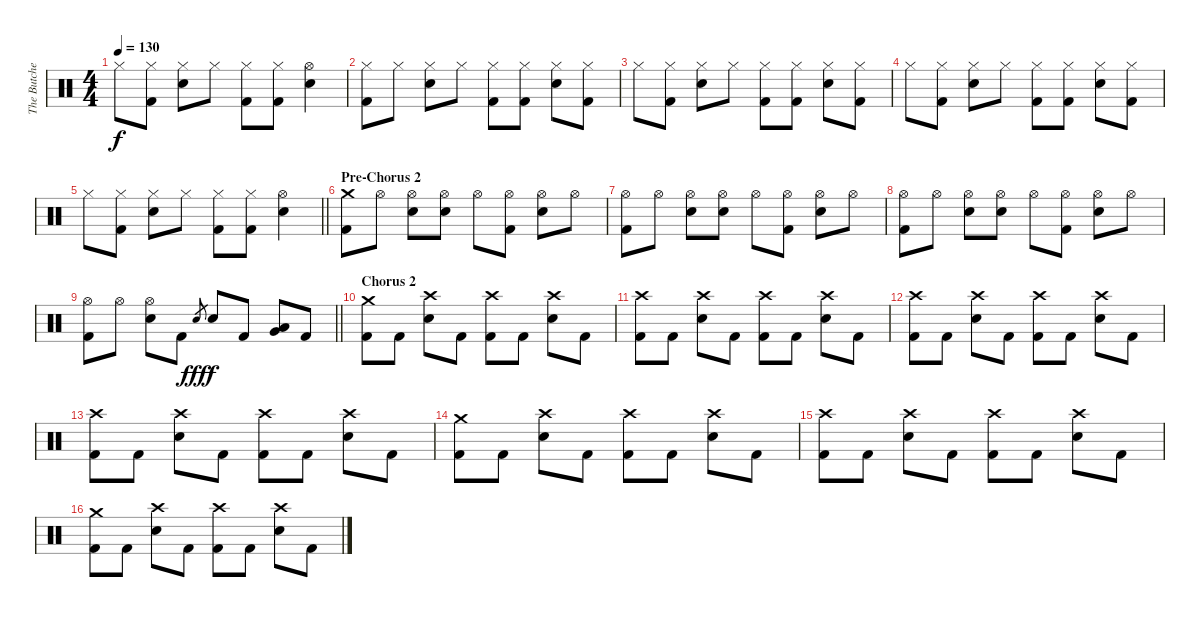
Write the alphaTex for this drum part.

\track ("The Butcher (Drums)" "The Butche") {instrument percussion}
\staff {score}
\articulation defaults
\ts (4 4)
\tempo 130
\clef neutral
\ks c "Hi-Hat (closed)".8{dy f}
("Hi-Hat (closed)" "Kick (hit) 2").8 ("Hi-Hat (closed)" "Electric Snare (hit)").8 "Hi-Hat (closed)".8 ("Hi-Hat (closed)" "Kick (hit) 2").8 ("Hi-Hat (closed)" "Kick (hit) 2").8 ("Hi-Hat (open)" "Electric Snare (hit)").4 |
("Hi-Hat (closed)" "Kick (hit) 2").8 "Hi-Hat (closed)".8 ("Hi-Hat (closed)" "Electric Snare (hit)").8 "Hi-Hat (closed)".8 ("Hi-Hat (closed)" "Kick (hit) 2").8 ("Hi-Hat (closed)" "Kick (hit) 2").8 ("Hi-Hat (closed)" "Electric Snare (hit)").8 ("Hi-Hat (closed)" "Kick (hit) 2").8 |
"Hi-Hat (closed)".8 ("Hi-Hat (closed)" "Kick (hit) 2").8 ("Hi-Hat (closed)" "Electric Snare (hit)").8 "Hi-Hat (closed)".8 ("Hi-Hat (closed)" "Kick (hit) 2").8 ("Hi-Hat (closed)" "Kick (hit) 2").8 ("Hi-Hat (closed)" "Electric Snare (hit)").8 ("Hi-Hat (closed)" "Kick (hit) 2").8 |
"Hi-Hat (closed)".8 ("Hi-Hat (closed)" "Kick (hit) 2").8 ("Hi-Hat (closed)" "Electric Snare (hit)").8 "Hi-Hat (closed)".8 ("Hi-Hat (closed)" "Kick (hit) 2").8 ("Hi-Hat (closed)" "Kick (hit) 2").8 ("Hi-Hat (closed)" "Electric Snare (hit)").8 ("Hi-Hat (closed)" "Kick (hit) 2").8 |
\barLineRight lightlight "Hi-Hat (closed)".8
("Hi-Hat (closed)" "Kick (hit) 2").8 ("Hi-Hat (closed)" "Electric Snare (hit)").8 "Hi-Hat (closed)".8 ("Hi-Hat (closed)" "Kick (hit) 2").8 ("Hi-Hat (closed)" "Kick (hit) 2").8 ("Hi-Hat (open)" "Electric Snare (hit)").4 |
\section ("" "Pre-Chorus 2")
("Crash medium (hit)" "Kick (hit) 2").8 "Hi-Hat (open)".8 ("Hi-Hat (open)" "Electric Snare (hit)").8 ("Hi-Hat (open)" "Electric Snare (hit)").8 "Hi-Hat (open)".8 ("Hi-Hat (open)" "Kick (hit) 2").8 ("Hi-Hat (open)" "Electric Snare (hit)").8 "Hi-Hat (open)".8 |
("Hi-Hat (open)" "Kick (hit) 2").8 "Hi-Hat (open)".8 ("Hi-Hat (open)" "Electric Snare (hit)").8 ("Hi-Hat (open)" "Electric Snare (hit)").8 "Hi-Hat (open)".8 ("Hi-Hat (open)" "Kick (hit) 2").8 ("Hi-Hat (open)" "Electric Snare (hit)").8 "Hi-Hat (open)".8 |
("Hi-Hat (open)" "Kick (hit) 2").8 "Hi-Hat (open)".8 ("Hi-Hat (open)" "Electric Snare (hit)").8 ("Hi-Hat (open)" "Electric Snare (hit)").8 "Hi-Hat (open)".8 ("Hi-Hat (open)" "Kick (hit) 2").8 ("Hi-Hat (open)" "Electric Snare (hit)").8 "Hi-Hat (open)".8 |
\barLineRight lightlight
("Hi-Hat (open)" "Kick (hit) 2").8 "Hi-Hat (open)".8 ("Hi-Hat (open)" "Electric Snare (hit)").8 "Kick (hit) 2".8 "Electric Snare (hit)".8{gr dy fff} "Electric Snare (hit)".8{dy f} "Kick (hit) 2".8 ("Low Tom (hit)" "Very Low Tom (hit)").8 "Kick (hit) 2".8 |
\section ("" "Chorus 2")
("Crash medium (hit)" "Kick (hit) 2").8 "Kick (hit) 2".8 ("Crash high (hit)" "Electric Snare (hit)").8 "Kick (hit) 2".8 ("Crash high (hit)" "Kick (hit) 2").8 "Kick (hit) 2".8 ("Crash high (hit)" "Electric Snare (hit)").8 "Kick (hit) 2".8 |
("Crash high (hit)" "Kick (hit) 2").8 "Kick (hit) 2".8 ("Crash high (hit)" "Electric Snare (hit)").8 "Kick (hit) 2".8 ("Crash high (hit)" "Kick (hit) 2").8 "Kick (hit) 2".8 ("Crash high (hit)" "Electric Snare (hit)").8 "Kick (hit) 2".8 |
("Crash high (hit)" "Kick (hit) 2").8 "Kick (hit) 2".8 ("Crash high (hit)" "Electric Snare (hit)").8 "Kick (hit) 2".8 ("Crash high (hit)" "Kick (hit) 2").8 "Kick (hit) 2".8 ("Crash high (hit)" "Electric Snare (hit)").8 "Kick (hit) 2".8 |
("Crash high (hit)" "Kick (hit) 2").8 "Kick (hit) 2".8 ("Crash high (hit)" "Electric Snare (hit)").8 "Kick (hit) 2".8 ("Crash high (hit)" "Kick (hit) 2").8 "Kick (hit) 2".8 ("Crash high (hit)" "Electric Snare (hit)").8 "Kick (hit) 2".8 |
("Crash medium (hit)" "Kick (hit) 2").8 "Kick (hit) 2".8 ("Crash high (hit)" "Electric Snare (hit)").8 "Kick (hit) 2".8 ("Crash high (hit)" "Kick (hit) 2").8 "Kick (hit) 2".8 ("Crash high (hit)" "Electric Snare (hit)").8 "Kick (hit) 2".8 |
("Crash high (hit)" "Kick (hit) 2").8 "Kick (hit) 2".8 ("Crash high (hit)" "Electric Snare (hit)").8 "Kick (hit) 2".8 ("Crash high (hit)" "Kick (hit) 2").8 "Kick (hit) 2".8 ("Crash high (hit)" "Electric Snare (hit)").8 "Kick (hit) 2".8 |
("Crash medium (hit)" "Kick (hit) 2").8 "Kick (hit) 2".8 ("Crash high (hit)" "Electric Snare (hit)").8 "Kick (hit) 2".8 ("Crash high (hit)" "Kick (hit) 2").8 "Kick (hit) 2".8 ("Crash high (hit)" "Electric Snare (hit)").8 "Kick (hit) 2".8
